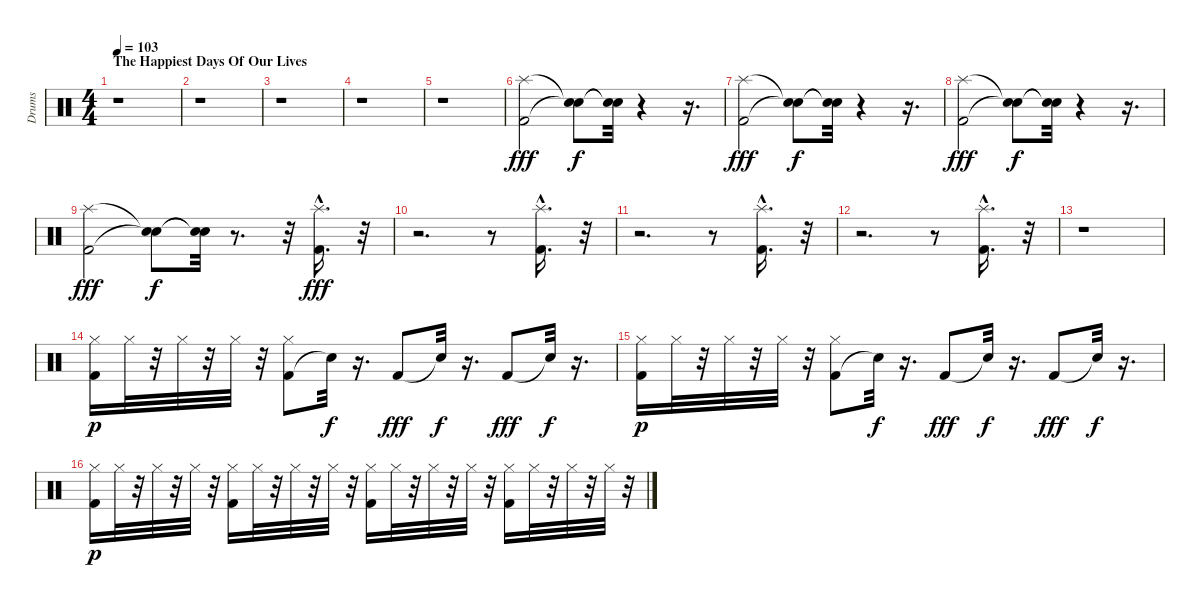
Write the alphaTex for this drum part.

\track ("Drums" "Drums") {instrument percussion}
\staff {score}
\articulation defaults
\ts (4 4)
\section ("" "The Happiest Days Of Our Lives")
\tempo 103
\clef neutral
\ks c
r.1{dy fff} |
r.1 |
r.1 |
r.1 |
r.1 |
("Kick (hit) 2" "Splash (hit)").2 ("Snare (hit)"{t} "Snare (hit)"{t}).8{dy f} ("Snare (hit)"{t} "Snare (hit)"{t}).32 r.4 r.16{d} |
("Kick (hit) 2" "Splash (hit)").2{dy fff} ("Snare (hit)"{t} "Snare (hit)"{t}).8{dy f} ("Snare (hit)"{t} "Snare (hit)"{t}).32 r.4 r.16{d} |
("Kick (hit) 2" "Splash (hit)").2{dy fff} ("Snare (hit)"{t} "Snare (hit)"{t}).8{dy f} ("Snare (hit)"{t} "Snare (hit)"{t}).32 r.4 r.16{d} |
("Kick (hit) 2" "Splash (hit)").2{dy fff} ("Snare (hit)"{t} "Snare (hit)"{t}).8{dy f} ("Snare (hit)"{t} "Snare (hit)"{t}).32 r.8{d} r.32 ("Kick (hit) 2"{hac} "Splash (hit)"{hac}).16{d dy fff} r.32 |
r.2{d} r.8 ("Kick (hit) 2"{hac} "Splash (hit)"{hac}).16{d} r.32 |
r.2{d} r.8 ("Kick (hit) 2"{hac} "Splash (hit)"{hac}).16{d} r.32 |
r.2{d} r.8 ("Kick (hit) 2"{hac} "Splash (hit)"{hac}).16{d} r.32 |
r.1 |
("Kick (hit) 2" "Hi-Hat (closed)").16{dy p} "Hi-Hat (closed)".32 r.32 "Hi-Hat (closed)".32 r.32 "Hi-Hat (closed)".32 r.32 ("Kick (hit) 2" "Hi-Hat (closed)").8 "Snare (hit)"{t}.32{dy f} r.16{d} "Kick (hit) 2".8{dy fff} "Snare (hit)"{t}.32{dy f} r.16{d} "Kick (hit) 2".8{dy fff} "Snare (hit)"{t}.32{dy f} r.16{d} |
("Kick (hit) 2" "Hi-Hat (closed)").16{dy p} "Hi-Hat (closed)".32 r.32 "Hi-Hat (closed)".32 r.32 "Hi-Hat (closed)".32 r.32 ("Kick (hit) 2" "Hi-Hat (closed)").8 "Snare (hit)"{t}.32{dy f} r.16{d} "Kick (hit) 2".8{dy fff} "Snare (hit)"{t}.32{dy f} r.16{d} "Kick (hit) 2".8{dy fff} "Snare (hit)"{t}.32{dy f} r.16{d} |
("Kick (hit) 2" "Hi-Hat (closed)").16{dy p} "Hi-Hat (closed)".32 r.32 "Hi-Hat (closed)".32 r.32 "Hi-Hat (closed)".32 r.32 ("Kick (hit) 2" "Hi-Hat (closed)").16 "Hi-Hat (closed)".32 r.32 "Hi-Hat (closed)".32 r.32 "Hi-Hat (closed)".32 r.32 ("Kick (hit) 2" "Hi-Hat (closed)").16 "Hi-Hat (closed)".32 r.32 "Hi-Hat (closed)".32 r.32 "Hi-Hat (closed)".32 r.32 ("Kick (hit) 2" "Hi-Hat (closed)").16 "Hi-Hat (closed)".32 r.32 "Hi-Hat (closed)".32 r.32 "Hi-Hat (closed)".32 r.32
